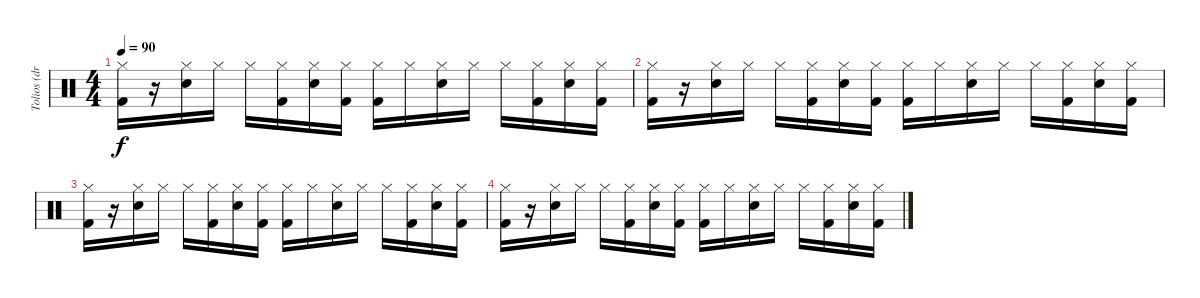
\track ("Tolios (drums)" "Tolios (dr") {instrument percussion}
\staff {score}
\articulation defaults
\ts (4 4)
\tempo 90
\clef neutral
\ks c
("Hi-Hat (closed)" "Kick (hit) 2").16{dy f} r.16 ("Hi-Hat (closed)" "Snare (hit) 2").16 "Hi-Hat (closed)".16 "Hi-Hat (closed)".16 ("Hi-Hat (closed)" "Kick (hit) 2").16 ("Hi-Hat (closed)" "Snare (hit) 2").16 ("Hi-Hat (closed)" "Kick (hit) 2").16 ("Hi-Hat (closed)" "Kick (hit) 2").16 "Hi-Hat (closed)".16 ("Hi-Hat (closed)" "Snare (hit) 2").16 "Hi-Hat (closed)".16 "Hi-Hat (closed)".16 ("Hi-Hat (closed)" "Kick (hit) 2").16 ("Hi-Hat (closed)" "Snare (hit) 2").16 ("Hi-Hat (closed)" "Kick (hit) 2").16 |
("Hi-Hat (closed)" "Kick (hit) 2").16 r.16 ("Hi-Hat (closed)" "Snare (hit) 2").16 "Hi-Hat (closed)".16 "Hi-Hat (closed)".16 ("Hi-Hat (closed)" "Kick (hit) 2").16 ("Hi-Hat (closed)" "Snare (hit) 2").16 ("Hi-Hat (closed)" "Kick (hit) 2").16 ("Hi-Hat (closed)" "Kick (hit) 2").16 "Hi-Hat (closed)".16 ("Hi-Hat (closed)" "Snare (hit) 2").16 "Hi-Hat (closed)".16 "Hi-Hat (closed)".16 ("Hi-Hat (closed)" "Kick (hit) 2").16 ("Hi-Hat (closed)" "Snare (hit) 2").16 ("Hi-Hat (closed)" "Kick (hit) 2").16 |
("Hi-Hat (closed)" "Kick (hit) 2").16 r.16 ("Hi-Hat (closed)" "Snare (hit) 2").16 "Hi-Hat (closed)".16 "Hi-Hat (closed)".16 ("Hi-Hat (closed)" "Kick (hit) 2").16 ("Hi-Hat (closed)" "Snare (hit) 2").16 ("Hi-Hat (closed)" "Kick (hit) 2").16 ("Hi-Hat (closed)" "Kick (hit) 2").16 "Hi-Hat (closed)".16 ("Hi-Hat (closed)" "Snare (hit) 2").16 "Hi-Hat (closed)".16 "Hi-Hat (closed)".16 ("Hi-Hat (closed)" "Kick (hit) 2").16 ("Hi-Hat (closed)" "Snare (hit) 2").16 ("Hi-Hat (closed)" "Kick (hit) 2").16 |
("Hi-Hat (closed)" "Kick (hit) 2").16 r.16 ("Hi-Hat (closed)" "Snare (hit) 2").16 "Hi-Hat (closed)".16 "Hi-Hat (closed)".16 ("Hi-Hat (closed)" "Kick (hit) 2").16 ("Hi-Hat (closed)" "Snare (hit) 2").16 ("Hi-Hat (closed)" "Kick (hit) 2").16 ("Hi-Hat (closed)" "Kick (hit) 2").16 "Hi-Hat (closed)".16 ("Hi-Hat (closed)" "Snare (hit) 2").16 "Hi-Hat (closed)".16 "Hi-Hat (closed)".16 ("Hi-Hat (closed)" "Kick (hit) 2").16 ("Hi-Hat (closed)" "Snare (hit) 2").16 ("Hi-Hat (closed)" "Kick (hit) 2").16
